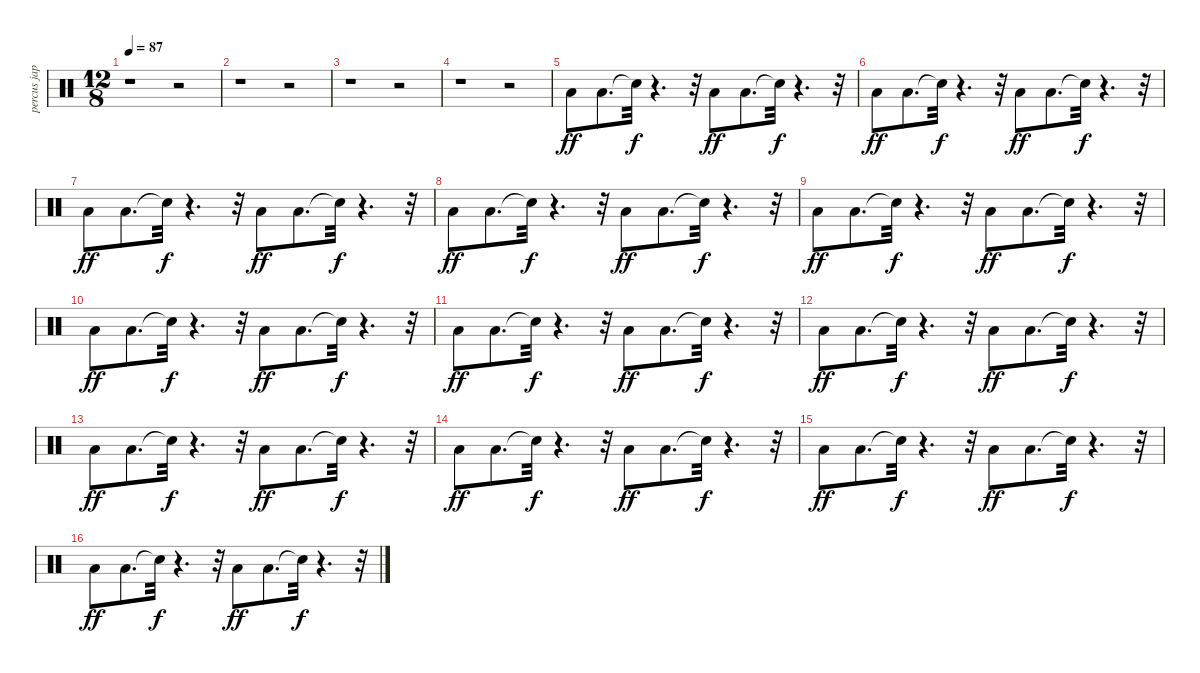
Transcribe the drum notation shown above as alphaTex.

\track ("percus jap" "percus jap") {instrument percussion}
\staff {score}
\articulation defaults
\ts (12 8)
\tempo 87
\clef neutral
\ks c
r.1{dy ff} r.2 |
r.1 r.2 |
r.1 r.2 |
r.1 r.2 |
"Low Tom (hit)".8 "Low Tom (hit)".8{d} "Snare (hit)"{t}.32{dy f} r.4{d} r.32 "Low Tom (hit)".8{dy ff} "Low Tom (hit)".8{d} "Snare (hit)"{t}.32{dy f} r.4{d} r.32 |
"Low Tom (hit)".8{dy ff} "Low Tom (hit)".8{d} "Snare (hit)"{t}.32{dy f} r.4{d} r.32 "Low Tom (hit)".8{dy ff} "Low Tom (hit)".8{d} "Snare (hit)"{t}.32{dy f} r.4{d} r.32 |
"Low Tom (hit)".8{dy ff} "Low Tom (hit)".8{d} "Snare (hit)"{t}.32{dy f} r.4{d} r.32 "Low Tom (hit)".8{dy ff} "Low Tom (hit)".8{d} "Snare (hit)"{t}.32{dy f} r.4{d} r.32 |
"Low Tom (hit)".8{dy ff} "Low Tom (hit)".8{d} "Snare (hit)"{t}.32{dy f} r.4{d} r.32 "Low Tom (hit)".8{dy ff} "Low Tom (hit)".8{d} "Snare (hit)"{t}.32{dy f} r.4{d} r.32 |
"Low Tom (hit)".8{dy ff} "Low Tom (hit)".8{d} "Snare (hit)"{t}.32{dy f} r.4{d} r.32 "Low Tom (hit)".8{dy ff} "Low Tom (hit)".8{d} "Snare (hit)"{t}.32{dy f} r.4{d} r.32 |
"Low Tom (hit)".8{dy ff} "Low Tom (hit)".8{d} "Snare (hit)"{t}.32{dy f} r.4{d} r.32 "Low Tom (hit)".8{dy ff} "Low Tom (hit)".8{d} "Snare (hit)"{t}.32{dy f} r.4{d} r.32 |
"Low Tom (hit)".8{dy ff} "Low Tom (hit)".8{d} "Snare (hit)"{t}.32{dy f} r.4{d} r.32 "Low Tom (hit)".8{dy ff} "Low Tom (hit)".8{d} "Snare (hit)"{t}.32{dy f} r.4{d} r.32 |
"Low Tom (hit)".8{dy ff} "Low Tom (hit)".8{d} "Snare (hit)"{t}.32{dy f} r.4{d} r.32 "Low Tom (hit)".8{dy ff} "Low Tom (hit)".8{d} "Snare (hit)"{t}.32{dy f} r.4{d} r.32 |
"Low Tom (hit)".8{dy ff} "Low Tom (hit)".8{d} "Snare (hit)"{t}.32{dy f} r.4{d} r.32 "Low Tom (hit)".8{dy ff} "Low Tom (hit)".8{d} "Snare (hit)"{t}.32{dy f} r.4{d} r.32 |
"Low Tom (hit)".8{dy ff} "Low Tom (hit)".8{d} "Snare (hit)"{t}.32{dy f} r.4{d} r.32 "Low Tom (hit)".8{dy ff} "Low Tom (hit)".8{d} "Snare (hit)"{t}.32{dy f} r.4{d} r.32 |
"Low Tom (hit)".8{dy ff} "Low Tom (hit)".8{d} "Snare (hit)"{t}.32{dy f} r.4{d} r.32 "Low Tom (hit)".8{dy ff} "Low Tom (hit)".8{d} "Snare (hit)"{t}.32{dy f} r.4{d} r.32 |
"Low Tom (hit)".8{dy ff} "Low Tom (hit)".8{d} "Snare (hit)"{t}.32{dy f} r.4{d} r.32 "Low Tom (hit)".8{dy ff} "Low Tom (hit)".8{d} "Snare (hit)"{t}.32{dy f} r.4{d} r.32
